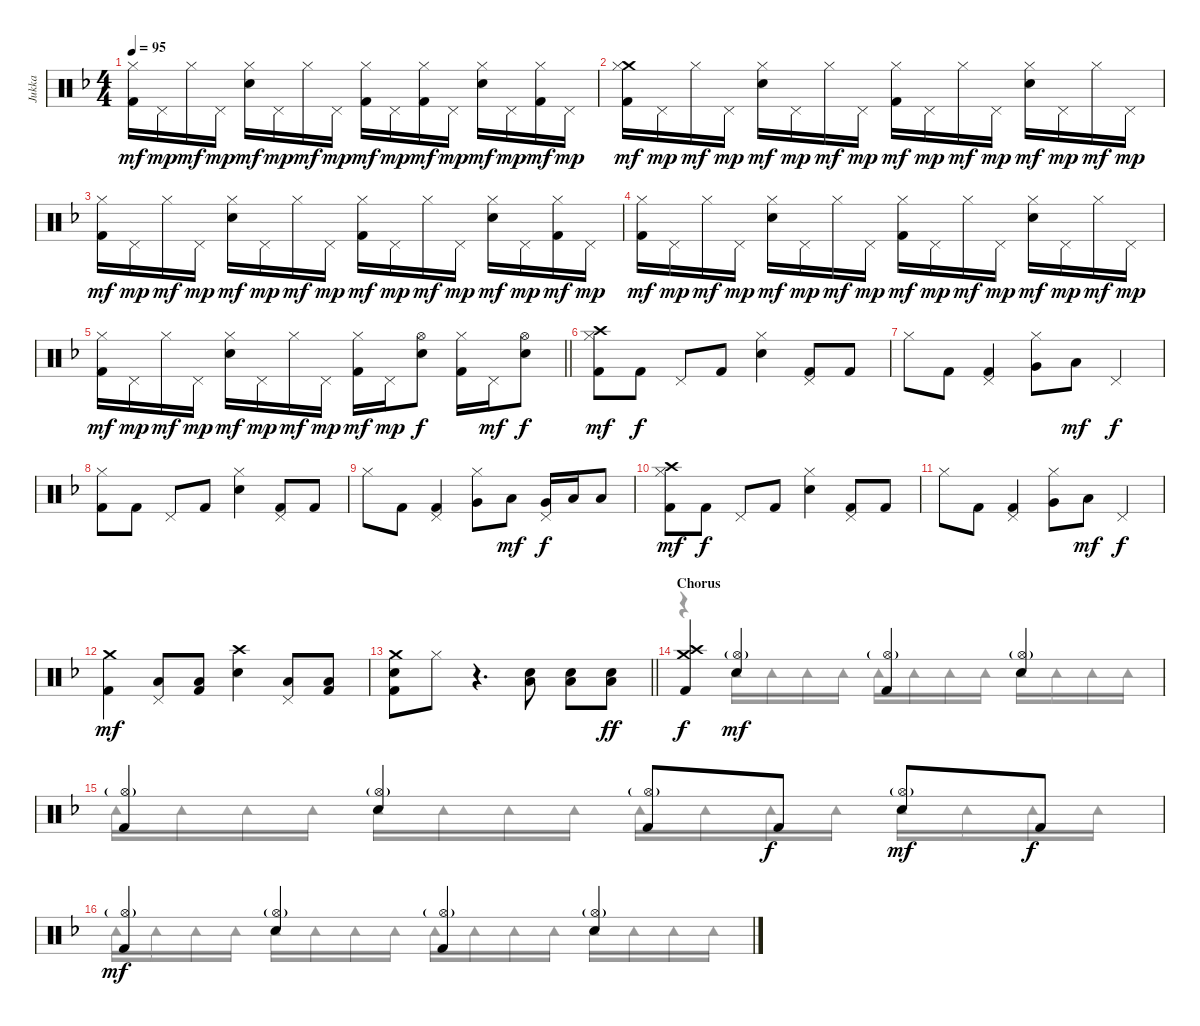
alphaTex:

\track ("Jukka" "Jukka") {instrument percussion}
\staff {score}
\articulation defaults
\voice
\ts (4 4)
\tempo 95
\clef neutral
\ks f
("Hi-Hat (closed)" "Kick (hit) 2").16{dy mf} "Pedal Hi-Hat (hit)".16{dy mp} "Hi-Hat (closed)".16{dy mf} "Pedal Hi-Hat (hit)".16{dy mp} ("Hi-Hat (closed)" "Electric Snare (hit)").16{dy mf} "Pedal Hi-Hat (hit)".16{dy mp} "Hi-Hat (closed)".16{dy mf} "Pedal Hi-Hat (hit)".16{dy mp} ("Hi-Hat (closed)" "Kick (hit) 2").16{dy mf} "Pedal Hi-Hat (hit)".16{dy mp} ("Hi-Hat (closed)" "Kick (hit) 2").16{dy mf} "Pedal Hi-Hat (hit)".16{dy mp} ("Hi-Hat (closed)" "Electric Snare (hit)").16{dy mf} "Pedal Hi-Hat (hit)".16{dy mp} ("Hi-Hat (closed)" "Kick (hit) 2").16{dy mf} "Pedal Hi-Hat (hit)".16{dy mp} |
("Crash medium (hit)" "Hi-Hat (closed)" "Kick (hit) 2").16{dy mf} "Pedal Hi-Hat (hit)".16{dy mp} "Hi-Hat (closed)".16{dy mf} "Pedal Hi-Hat (hit)".16{dy mp} ("Hi-Hat (closed)" "Electric Snare (hit)").16{dy mf} "Pedal Hi-Hat (hit)".16{dy mp} "Hi-Hat (closed)".16{dy mf} "Pedal Hi-Hat (hit)".16{dy mp} ("Hi-Hat (closed)" "Kick (hit) 2").16{dy mf} "Pedal Hi-Hat (hit)".16{dy mp} "Hi-Hat (closed)".16{dy mf} "Pedal Hi-Hat (hit)".16{dy mp} ("Hi-Hat (closed)" "Electric Snare (hit)").16{dy mf} "Pedal Hi-Hat (hit)".16{dy mp} "Hi-Hat (closed)".16{dy mf} "Pedal Hi-Hat (hit)".16{dy mp} |
("Hi-Hat (closed)" "Kick (hit) 2").16{dy mf} "Pedal Hi-Hat (hit)".16{dy mp} "Hi-Hat (closed)".16{dy mf} "Pedal Hi-Hat (hit)".16{dy mp} ("Hi-Hat (closed)" "Electric Snare (hit)").16{dy mf} "Pedal Hi-Hat (hit)".16{dy mp} "Hi-Hat (closed)".16{dy mf} "Pedal Hi-Hat (hit)".16{dy mp} ("Hi-Hat (closed)" "Kick (hit) 2").16{dy mf} "Pedal Hi-Hat (hit)".16{dy mp} "Hi-Hat (closed)".16{dy mf} "Pedal Hi-Hat (hit)".16{dy mp} ("Hi-Hat (closed)" "Electric Snare (hit)").16{dy mf} "Pedal Hi-Hat (hit)".16{dy mp} ("Hi-Hat (closed)" "Kick (hit) 2").16{dy mf} "Pedal Hi-Hat (hit)".16{dy mp} |
("Hi-Hat (closed)" "Kick (hit) 2").16{dy mf} "Pedal Hi-Hat (hit)".16{dy mp} "Hi-Hat (closed)".16{dy mf} "Pedal Hi-Hat (hit)".16{dy mp} ("Hi-Hat (closed)" "Electric Snare (hit)").16{dy mf} "Pedal Hi-Hat (hit)".16{dy mp} "Hi-Hat (closed)".16{dy mf} "Pedal Hi-Hat (hit)".16{dy mp} ("Hi-Hat (closed)" "Kick (hit) 2").16{dy mf} "Pedal Hi-Hat (hit)".16{dy mp} "Hi-Hat (closed)".16{dy mf} "Pedal Hi-Hat (hit)".16{dy mp} ("Hi-Hat (closed)" "Electric Snare (hit)").16{dy mf} "Pedal Hi-Hat (hit)".16{dy mp} "Hi-Hat (closed)".16{dy mf} "Pedal Hi-Hat (hit)".16{dy mp} |
\barLineRight lightlight
("Hi-Hat (closed)" "Kick (hit) 2").16{dy mf} "Pedal Hi-Hat (hit)".16{dy mp} "Hi-Hat (closed)".16{dy mf} "Pedal Hi-Hat (hit)".16{dy mp} ("Hi-Hat (closed)" "Electric Snare (hit)").16{dy mf} "Pedal Hi-Hat (hit)".16{dy mp} "Hi-Hat (closed)".16{dy mf} "Pedal Hi-Hat (hit)".16{dy mp} ("Hi-Hat (closed)" "Kick (hit) 2").16{dy mf} "Pedal Hi-Hat (hit)".16{dy mp} ("Hi-Hat (open)" "Electric Snare (hit)").8{dy f} ("Hi-Hat (closed)" "Kick (hit) 2").16 "Pedal Hi-Hat (hit)".16{dy mf} ("Hi-Hat (open)" "Electric Snare (hit)").8{dy f} |
("Crash high (hit)" "Hi-Hat (closed)" "Kick (hit) 2").8{dy mf} "Kick (hit) 2".8{dy f} "Pedal Hi-Hat (hit)".8 "Kick (hit) 2".8 ("Hi-Hat (closed)" "Snare (hit) 2").4 ("Pedal Hi-Hat (hit)" "Kick (hit) 2").8 "Kick (hit) 2".8 |
"Hi-Hat (closed)".8 "Kick (hit) 2".8 ("Pedal Hi-Hat (hit)" "Kick (hit) 2").4 ("Hi-Hat (closed)" "Very Low Tom (hit)").8 "Low Floor Tom (hit)".8{dy mf} "Pedal Hi-Hat (hit)".4{dy f} |
("Hi-Hat (closed)" "Kick (hit) 2").8 "Kick (hit) 2".8 "Pedal Hi-Hat (hit)".8 "Kick (hit) 2".8 ("Hi-Hat (closed)" "Snare (hit) 2").4 ("Pedal Hi-Hat (hit)" "Kick (hit) 2").8 "Kick (hit) 2".8 |
"Hi-Hat (closed)".8 "Kick (hit) 2".8 ("Pedal Hi-Hat (hit)" "Kick (hit) 2").4 ("Hi-Hat (closed)" "Very Low Tom (hit)").8 "Low Floor Tom (hit)".8{dy mf} ("Pedal Hi-Hat (hit)" "Very Low Tom (hit)").16{dy f} "Low Floor Tom (hit)".16 "Low Floor Tom (hit)".8 |
("Crash high (hit)" "Hi-Hat (closed)" "Kick (hit) 2").8{dy mf} "Kick (hit) 2".8{dy f} "Pedal Hi-Hat (hit)".8 "Kick (hit) 2".8 ("Hi-Hat (closed)" "Snare (hit) 2").4 ("Pedal Hi-Hat (hit)" "Kick (hit) 2").8 "Kick (hit) 2".8 |
"Hi-Hat (closed)".8 "Kick (hit) 2".8 ("Pedal Hi-Hat (hit)" "Kick (hit) 2").4 ("Hi-Hat (closed)" "Very Low Tom (hit)").8 "Low Floor Tom (hit)".8{dy mf} "Pedal Hi-Hat (hit)".4{dy f} |
("Crash medium (hit)" "Kick (hit) 2").4{dy mf} ("Pedal Hi-Hat (hit)" "Low Floor Tom (hit)").8 ("Low Floor Tom (hit)" "Kick (hit) 2").8 ("Crash high (hit)" "Electric Snare (hit)").4 ("Pedal Hi-Hat (hit)" "Low Floor Tom (hit)").8 ("Low Floor Tom (hit)" "Kick (hit) 2").8 |
\barLineRight lightlight
("Crash medium (hit)" "Snare (hit) 2" "Kick (hit) 2").8 "Hi-Hat (closed)".8 r.4{d} ("Electric Snare (hit)" "Low Floor Tom (hit)").8 ("Electric Snare (hit)" "Low Floor Tom (hit)").8 ("Electric Snare (hit)" "Low Floor Tom (hit)").8{dy ff} |
\section ("" "Chorus")
("Crash high (hit)" "Crash medium (hit)" "Kick (hit) 2").4{dy f} ("Hi-Hat (open)"{g} "Electric Snare (hit)").4{dy mf} ("Hi-Hat (open)"{g} "Kick (hit) 2").4 ("Hi-Hat (open)"{g} "Electric Snare (hit)").4 |
("Hi-Hat (open)"{g} "Kick (hit) 2").4 ("Hi-Hat (open)"{g} "Electric Snare (hit)").4 ("Hi-Hat (open)"{g} "Kick (hit) 2").8 "Kick (hit) 2".8{dy f} ("Hi-Hat (open)"{g} "Electric Snare (hit)").8{dy mf} "Kick (hit) 2".8{dy f} |
("Hi-Hat (open)"{g} "Kick (hit) 2").4{dy mf} ("Hi-Hat (open)"{g} "Electric Snare (hit)").4 ("Hi-Hat (open)"{g} "Kick (hit) 2").4 ("Hi-Hat (open)"{g} "Electric Snare (hit)").4
\voice
\clef neutral
\ottava regular
\simile none
\ks f
|
|
|
|
\barLineRight lightlight
|
|
|
|
|
|
|
|
\barLineRight lightlight
|
r.4 "Tambourine (hit)".16 "Tambourine (hit)".16 "Tambourine (hit)".16 "Tambourine (hit)".16 "Tambourine (hit)".16 "Tambourine (hit)".16 "Tambourine (hit)".16 "Tambourine (hit)".16 "Tambourine (hit)".16 "Tambourine (hit)".16 "Tambourine (hit)".16 "Tambourine (hit)".16 |
"Tambourine (hit)".16 "Tambourine (hit)".16 "Tambourine (hit)".16 "Tambourine (hit)".16 "Tambourine (hit)".16 "Tambourine (hit)".16 "Tambourine (hit)".16 "Tambourine (hit)".16 "Tambourine (hit)".16 "Tambourine (hit)".16 "Tambourine (hit)".16 "Tambourine (hit)".16 "Tambourine (hit)".16 "Tambourine (hit)".16 "Tambourine (hit)".16 "Tambourine (hit)".16 |
"Tambourine (hit)".16 "Tambourine (hit)".16 "Tambourine (hit)".16 "Tambourine (hit)".16 "Tambourine (hit)".16 "Tambourine (hit)".16 "Tambourine (hit)".16 "Tambourine (hit)".16 "Tambourine (hit)".16 "Tambourine (hit)".16 "Tambourine (hit)".16 "Tambourine (hit)".16 "Tambourine (hit)".16 "Tambourine (hit)".16 "Tambourine (hit)".16 "Tambourine (hit)".16
